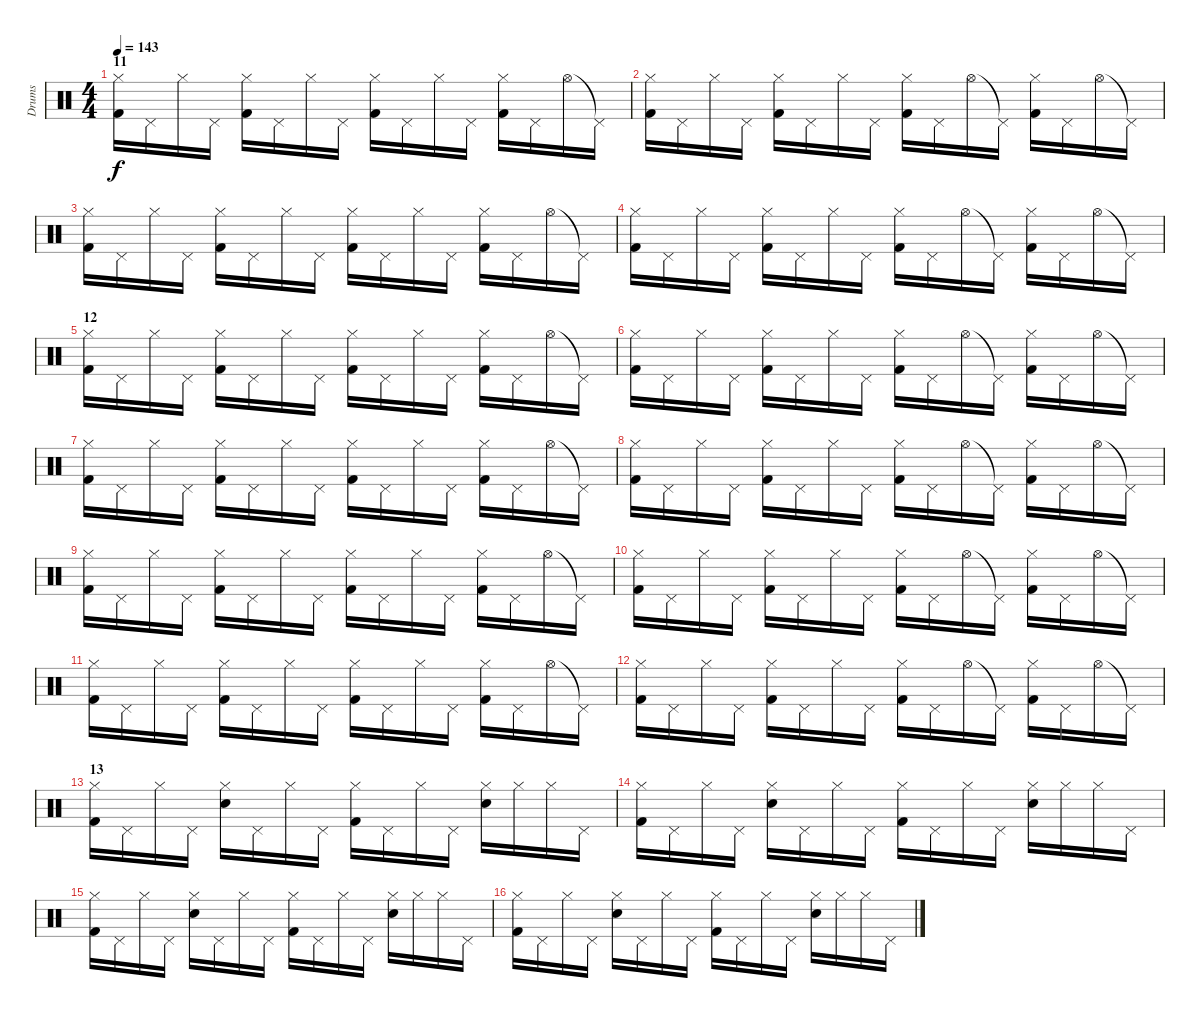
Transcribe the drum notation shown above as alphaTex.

\track ("Drums" "Drums") {instrument percussion}
\staff {score}
\articulation defaults
\ts (4 4)
\section ("" "11")
\tempo 143
\clef neutral
\ks c
("Hi-Hat (closed)" "Kick (hit) 2").16{dy f} "Pedal Hi-Hat (hit)".16 "Hi-Hat (closed)".16 "Pedal Hi-Hat (hit)".16 ("Hi-Hat (closed)" "Kick (hit) 2").16 "Pedal Hi-Hat (hit)".16 "Hi-Hat (closed)".16 "Pedal Hi-Hat (hit)".16 ("Hi-Hat (closed)" "Kick (hit) 2").16 "Pedal Hi-Hat (hit)".16 "Hi-Hat (closed)".16 "Pedal Hi-Hat (hit)".16 ("Hi-Hat (closed)" "Kick (hit) 2").16 "Pedal Hi-Hat (hit)".16 "Hi-Hat (open)".16 "Pedal Hi-Hat (hit)"{t}.16 |
("Hi-Hat (closed)" "Kick (hit) 2").16 "Pedal Hi-Hat (hit)".16 "Hi-Hat (closed)".16 "Pedal Hi-Hat (hit)".16 ("Hi-Hat (closed)" "Kick (hit) 2").16 "Pedal Hi-Hat (hit)".16 "Hi-Hat (closed)".16 "Pedal Hi-Hat (hit)".16 ("Hi-Hat (closed)" "Kick (hit) 2").16 "Pedal Hi-Hat (hit)".16 "Hi-Hat (open)".16 "Pedal Hi-Hat (hit)"{t}.16 ("Hi-Hat (closed)" "Kick (hit) 2").16 "Pedal Hi-Hat (hit)".16 "Hi-Hat (open)".16 "Pedal Hi-Hat (hit)"{t}.16 |
("Hi-Hat (closed)" "Kick (hit) 2").16 "Pedal Hi-Hat (hit)".16 "Hi-Hat (closed)".16 "Pedal Hi-Hat (hit)".16 ("Hi-Hat (closed)" "Kick (hit) 2").16 "Pedal Hi-Hat (hit)".16 "Hi-Hat (closed)".16 "Pedal Hi-Hat (hit)".16 ("Hi-Hat (closed)" "Kick (hit) 2").16 "Pedal Hi-Hat (hit)".16 "Hi-Hat (closed)".16 "Pedal Hi-Hat (hit)".16 ("Hi-Hat (closed)" "Kick (hit) 2").16 "Pedal Hi-Hat (hit)".16 "Hi-Hat (open)".16 "Pedal Hi-Hat (hit)"{t}.16 |
("Hi-Hat (closed)" "Kick (hit) 2").16 "Pedal Hi-Hat (hit)".16 "Hi-Hat (closed)".16 "Pedal Hi-Hat (hit)".16 ("Hi-Hat (closed)" "Kick (hit) 2").16 "Pedal Hi-Hat (hit)".16 "Hi-Hat (closed)".16 "Pedal Hi-Hat (hit)".16 ("Hi-Hat (closed)" "Kick (hit) 2").16 "Pedal Hi-Hat (hit)".16 "Hi-Hat (open)".16 "Pedal Hi-Hat (hit)"{t}.16 ("Hi-Hat (closed)" "Kick (hit) 2").16 "Pedal Hi-Hat (hit)".16 "Hi-Hat (open)".16 "Pedal Hi-Hat (hit)"{t}.16 |
\section ("" "12")
("Hi-Hat (closed)" "Kick (hit) 2").16 "Pedal Hi-Hat (hit)".16 "Hi-Hat (closed)".16 "Pedal Hi-Hat (hit)".16 ("Hi-Hat (closed)" "Kick (hit) 2").16 "Pedal Hi-Hat (hit)".16 "Hi-Hat (closed)".16 "Pedal Hi-Hat (hit)".16 ("Hi-Hat (closed)" "Kick (hit) 2").16 "Pedal Hi-Hat (hit)".16 "Hi-Hat (closed)".16 "Pedal Hi-Hat (hit)".16 ("Hi-Hat (closed)" "Kick (hit) 2").16 "Pedal Hi-Hat (hit)".16 "Hi-Hat (open)".16 "Pedal Hi-Hat (hit)"{t}.16 |
("Hi-Hat (closed)" "Kick (hit) 2").16 "Pedal Hi-Hat (hit)".16 "Hi-Hat (closed)".16 "Pedal Hi-Hat (hit)".16 ("Hi-Hat (closed)" "Kick (hit) 2").16 "Pedal Hi-Hat (hit)".16 "Hi-Hat (closed)".16 "Pedal Hi-Hat (hit)".16 ("Hi-Hat (closed)" "Kick (hit) 2").16 "Pedal Hi-Hat (hit)".16 "Hi-Hat (open)".16 "Pedal Hi-Hat (hit)"{t}.16 ("Hi-Hat (closed)" "Kick (hit) 2").16 "Pedal Hi-Hat (hit)".16 "Hi-Hat (open)".16 "Pedal Hi-Hat (hit)"{t}.16 |
("Hi-Hat (closed)" "Kick (hit) 2").16 "Pedal Hi-Hat (hit)".16 "Hi-Hat (closed)".16 "Pedal Hi-Hat (hit)".16 ("Hi-Hat (closed)" "Kick (hit) 2").16 "Pedal Hi-Hat (hit)".16 "Hi-Hat (closed)".16 "Pedal Hi-Hat (hit)".16 ("Hi-Hat (closed)" "Kick (hit) 2").16 "Pedal Hi-Hat (hit)".16 "Hi-Hat (closed)".16 "Pedal Hi-Hat (hit)".16 ("Hi-Hat (closed)" "Kick (hit) 2").16 "Pedal Hi-Hat (hit)".16 "Hi-Hat (open)".16 "Pedal Hi-Hat (hit)"{t}.16 |
("Hi-Hat (closed)" "Kick (hit) 2").16 "Pedal Hi-Hat (hit)".16 "Hi-Hat (closed)".16 "Pedal Hi-Hat (hit)".16 ("Hi-Hat (closed)" "Kick (hit) 2").16 "Pedal Hi-Hat (hit)".16 "Hi-Hat (closed)".16 "Pedal Hi-Hat (hit)".16 ("Hi-Hat (closed)" "Kick (hit) 2").16 "Pedal Hi-Hat (hit)".16 "Hi-Hat (open)".16 "Pedal Hi-Hat (hit)"{t}.16 ("Hi-Hat (closed)" "Kick (hit) 2").16 "Pedal Hi-Hat (hit)".16 "Hi-Hat (open)".16 "Pedal Hi-Hat (hit)"{t}.16 |
("Hi-Hat (closed)" "Kick (hit) 2").16 "Pedal Hi-Hat (hit)".16 "Hi-Hat (closed)".16 "Pedal Hi-Hat (hit)".16 ("Hi-Hat (closed)" "Kick (hit) 2").16 "Pedal Hi-Hat (hit)".16 "Hi-Hat (closed)".16 "Pedal Hi-Hat (hit)".16 ("Hi-Hat (closed)" "Kick (hit) 2").16 "Pedal Hi-Hat (hit)".16 "Hi-Hat (closed)".16 "Pedal Hi-Hat (hit)".16 ("Hi-Hat (closed)" "Kick (hit) 2").16 "Pedal Hi-Hat (hit)".16 "Hi-Hat (open)".16 "Pedal Hi-Hat (hit)"{t}.16 |
("Hi-Hat (closed)" "Kick (hit) 2").16 "Pedal Hi-Hat (hit)".16 "Hi-Hat (closed)".16 "Pedal Hi-Hat (hit)".16 ("Hi-Hat (closed)" "Kick (hit) 2").16 "Pedal Hi-Hat (hit)".16 "Hi-Hat (closed)".16 "Pedal Hi-Hat (hit)".16 ("Hi-Hat (closed)" "Kick (hit) 2").16 "Pedal Hi-Hat (hit)".16 "Hi-Hat (open)".16 "Pedal Hi-Hat (hit)"{t}.16 ("Hi-Hat (closed)" "Kick (hit) 2").16 "Pedal Hi-Hat (hit)".16 "Hi-Hat (open)".16 "Pedal Hi-Hat (hit)"{t}.16 |
("Hi-Hat (closed)" "Kick (hit) 2").16 "Pedal Hi-Hat (hit)".16 "Hi-Hat (closed)".16 "Pedal Hi-Hat (hit)".16 ("Hi-Hat (closed)" "Kick (hit) 2").16 "Pedal Hi-Hat (hit)".16 "Hi-Hat (closed)".16 "Pedal Hi-Hat (hit)".16 ("Hi-Hat (closed)" "Kick (hit) 2").16 "Pedal Hi-Hat (hit)".16 "Hi-Hat (closed)".16 "Pedal Hi-Hat (hit)".16 ("Hi-Hat (closed)" "Kick (hit) 2").16 "Pedal Hi-Hat (hit)".16 "Hi-Hat (open)".16 "Pedal Hi-Hat (hit)"{t}.16 |
("Hi-Hat (closed)" "Kick (hit) 2").16 "Pedal Hi-Hat (hit)".16 "Hi-Hat (closed)".16 "Pedal Hi-Hat (hit)".16 ("Hi-Hat (closed)" "Kick (hit) 2").16 "Pedal Hi-Hat (hit)".16 "Hi-Hat (closed)".16 "Pedal Hi-Hat (hit)".16 ("Hi-Hat (closed)" "Kick (hit) 2").16 "Pedal Hi-Hat (hit)".16 "Hi-Hat (open)".16 "Pedal Hi-Hat (hit)"{t}.16 ("Hi-Hat (closed)" "Kick (hit) 2").16 "Pedal Hi-Hat (hit)".16 "Hi-Hat (open)".16 "Pedal Hi-Hat (hit)"{t}.16 |
\section ("" "13")
("Hi-Hat (closed)" "Kick (hit) 2").16 "Pedal Hi-Hat (hit)".16 "Hi-Hat (closed)".16 "Pedal Hi-Hat (hit)".16 ("Hi-Hat (closed)" "Electric Snare (hit)").16 "Pedal Hi-Hat (hit)".16 "Hi-Hat (closed)".16 "Pedal Hi-Hat (hit)".16 ("Hi-Hat (closed)" "Kick (hit) 2").16 "Pedal Hi-Hat (hit)".16 "Hi-Hat (closed)".16 "Pedal Hi-Hat (hit)".16 ("Hi-Hat (closed)" "Electric Snare (hit)").16 "Hi-Hat (closed)".16 "Hi-Hat (closed)".16 "Pedal Hi-Hat (hit)".16 |
("Hi-Hat (closed)" "Kick (hit) 2").16 "Pedal Hi-Hat (hit)".16 "Hi-Hat (closed)".16 "Pedal Hi-Hat (hit)".16 ("Hi-Hat (closed)" "Electric Snare (hit)").16 "Pedal Hi-Hat (hit)".16 "Hi-Hat (closed)".16 "Pedal Hi-Hat (hit)".16 ("Hi-Hat (closed)" "Kick (hit) 2").16 "Pedal Hi-Hat (hit)".16 "Hi-Hat (closed)".16 "Pedal Hi-Hat (hit)".16 ("Hi-Hat (closed)" "Electric Snare (hit)").16 "Hi-Hat (closed)".16 "Hi-Hat (closed)".16 "Pedal Hi-Hat (hit)".16 |
("Hi-Hat (closed)" "Kick (hit) 2").16 "Pedal Hi-Hat (hit)".16 "Hi-Hat (closed)".16 "Pedal Hi-Hat (hit)".16 ("Hi-Hat (closed)" "Electric Snare (hit)").16 "Pedal Hi-Hat (hit)".16 "Hi-Hat (closed)".16 "Pedal Hi-Hat (hit)".16 ("Hi-Hat (closed)" "Kick (hit) 2").16 "Pedal Hi-Hat (hit)".16 "Hi-Hat (closed)".16 "Pedal Hi-Hat (hit)".16 ("Hi-Hat (closed)" "Electric Snare (hit)").16 "Hi-Hat (closed)".16 "Hi-Hat (closed)".16 "Pedal Hi-Hat (hit)".16 |
("Hi-Hat (closed)" "Kick (hit) 2").16 "Pedal Hi-Hat (hit)".16 "Hi-Hat (closed)".16 "Pedal Hi-Hat (hit)".16 ("Hi-Hat (closed)" "Electric Snare (hit)").16 "Pedal Hi-Hat (hit)".16 "Hi-Hat (closed)".16 "Pedal Hi-Hat (hit)".16 ("Hi-Hat (closed)" "Kick (hit) 2").16 "Pedal Hi-Hat (hit)".16 "Hi-Hat (closed)".16 "Pedal Hi-Hat (hit)".16 ("Hi-Hat (closed)" "Electric Snare (hit)").16 "Hi-Hat (closed)".16 "Hi-Hat (closed)".16 "Pedal Hi-Hat (hit)".16
